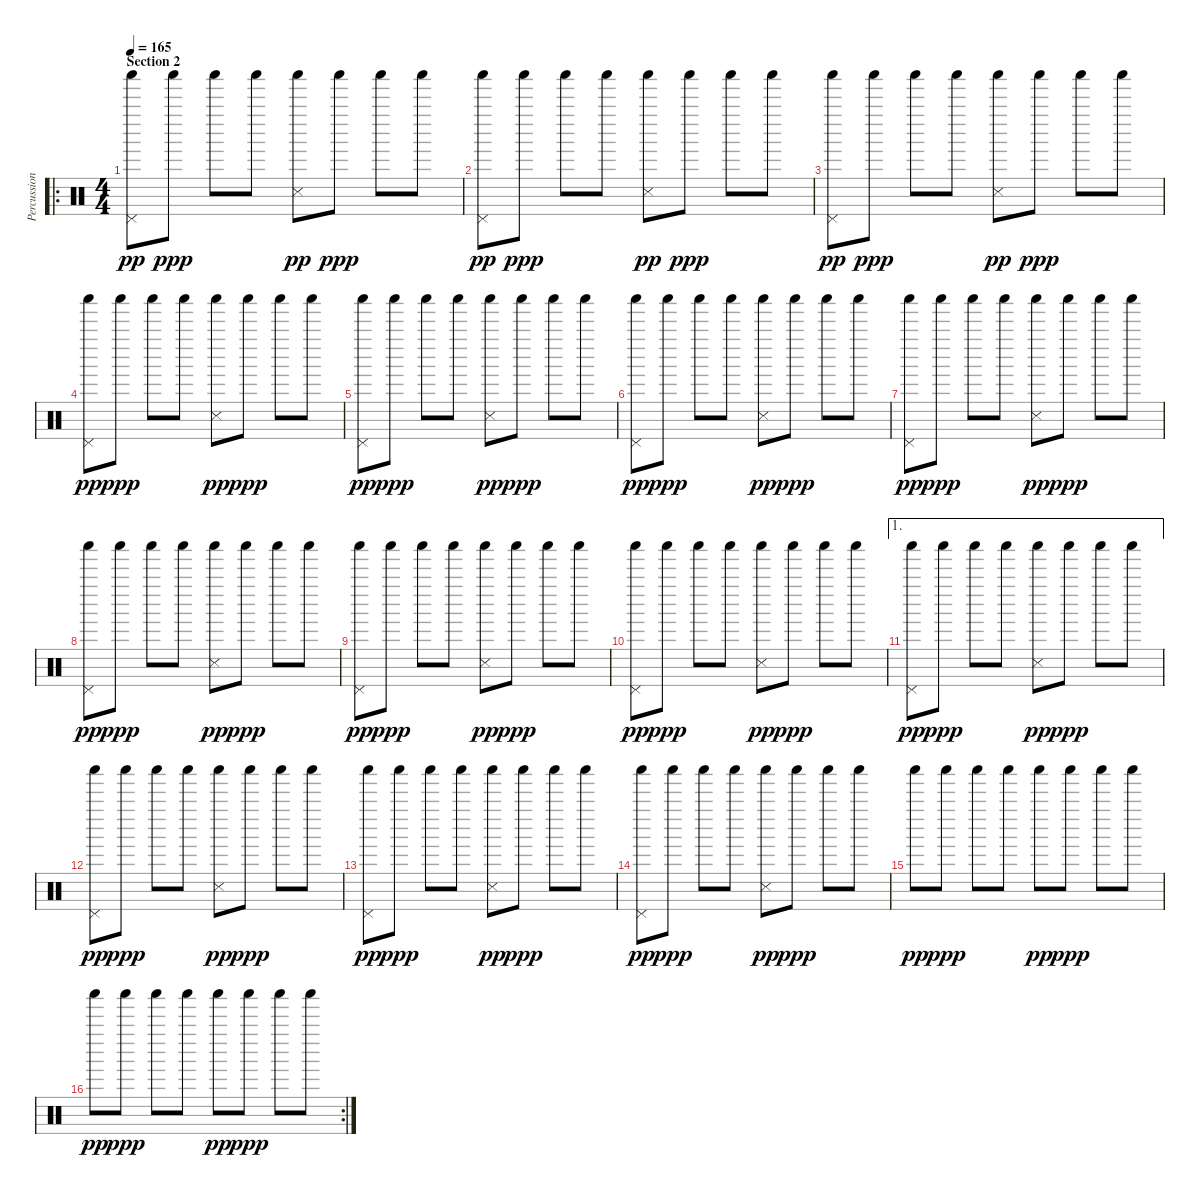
\track ("Percussion" "Percussion") {instrument percussion}
\staff {score}
\articulation defaults
\ro
\ts (4 4)
\section ("" "Section 2")
\tempo 165
\clef neutral
\ks c
("Pedal Hi-Hat (hit)" "Shaker (hit)").8{dy pp} "Shaker (hit)".8{dy ppp} "Shaker (hit)".8 "Shaker (hit)".8 ("Snare (side stick) 3" "Shaker (hit)").8{dy pp} "Shaker (hit)".8{dy ppp} "Shaker (hit)".8 "Shaker (hit)".8 |
("Pedal Hi-Hat (hit)" "Shaker (hit)").8{dy pp} "Shaker (hit)".8{dy ppp} "Shaker (hit)".8 "Shaker (hit)".8 ("Snare (side stick) 3" "Shaker (hit)").8{dy pp} "Shaker (hit)".8{dy ppp} "Shaker (hit)".8 "Shaker (hit)".8 |
("Pedal Hi-Hat (hit)" "Shaker (hit)").8{dy pp} "Shaker (hit)".8{dy ppp} "Shaker (hit)".8 "Shaker (hit)".8 ("Snare (side stick) 3" "Shaker (hit)").8{dy pp} "Shaker (hit)".8{dy ppp} "Shaker (hit)".8 "Shaker (hit)".8 |
("Pedal Hi-Hat (hit)" "Shaker (hit)").8{dy pp} "Shaker (hit)".8{dy ppp} "Shaker (hit)".8 "Shaker (hit)".8 ("Snare (side stick) 3" "Shaker (hit)").8{dy pp} "Shaker (hit)".8{dy ppp} "Shaker (hit)".8 "Shaker (hit)".8 |
("Pedal Hi-Hat (hit)" "Shaker (hit)").8{dy pp} "Shaker (hit)".8{dy ppp} "Shaker (hit)".8 "Shaker (hit)".8 ("Snare (side stick) 3" "Shaker (hit)").8{dy pp} "Shaker (hit)".8{dy ppp} "Shaker (hit)".8 "Shaker (hit)".8 |
("Pedal Hi-Hat (hit)" "Shaker (hit)").8{dy pp} "Shaker (hit)".8{dy ppp} "Shaker (hit)".8 "Shaker (hit)".8 ("Snare (side stick) 3" "Shaker (hit)").8{dy pp} "Shaker (hit)".8{dy ppp} "Shaker (hit)".8 "Shaker (hit)".8 |
("Pedal Hi-Hat (hit)" "Shaker (hit)").8{dy pp} "Shaker (hit)".8{dy ppp} "Shaker (hit)".8 "Shaker (hit)".8 ("Snare (side stick) 3" "Shaker (hit)").8{dy pp} "Shaker (hit)".8{dy ppp} "Shaker (hit)".8 "Shaker (hit)".8 |
("Pedal Hi-Hat (hit)" "Shaker (hit)").8{dy pp} "Shaker (hit)".8{dy ppp} "Shaker (hit)".8 "Shaker (hit)".8 ("Snare (side stick) 3" "Shaker (hit)").8{dy pp} "Shaker (hit)".8{dy ppp} "Shaker (hit)".8 "Shaker (hit)".8 |
("Pedal Hi-Hat (hit)" "Shaker (hit)").8{dy pp} "Shaker (hit)".8{dy ppp} "Shaker (hit)".8 "Shaker (hit)".8 ("Snare (side stick) 3" "Shaker (hit)").8{dy pp} "Shaker (hit)".8{dy ppp} "Shaker (hit)".8 "Shaker (hit)".8 |
("Pedal Hi-Hat (hit)" "Shaker (hit)").8{dy pp} "Shaker (hit)".8{dy ppp} "Shaker (hit)".8 "Shaker (hit)".8 ("Snare (side stick) 3" "Shaker (hit)").8{dy pp} "Shaker (hit)".8{dy ppp} "Shaker (hit)".8 "Shaker (hit)".8 |
\ae 1
("Pedal Hi-Hat (hit)" "Shaker (hit)").8{dy pp} "Shaker (hit)".8{dy ppp} "Shaker (hit)".8 "Shaker (hit)".8 ("Snare (side stick) 3" "Shaker (hit)").8{dy pp} "Shaker (hit)".8{dy ppp} "Shaker (hit)".8 "Shaker (hit)".8 |
("Pedal Hi-Hat (hit)" "Shaker (hit)").8{dy pp} "Shaker (hit)".8{dy ppp} "Shaker (hit)".8 "Shaker (hit)".8 ("Snare (side stick) 3" "Shaker (hit)").8{dy pp} "Shaker (hit)".8{dy ppp} "Shaker (hit)".8 "Shaker (hit)".8 |
("Pedal Hi-Hat (hit)" "Shaker (hit)").8{dy pp} "Shaker (hit)".8{dy ppp} "Shaker (hit)".8 "Shaker (hit)".8 ("Snare (side stick) 3" "Shaker (hit)").8{dy pp} "Shaker (hit)".8{dy ppp} "Shaker (hit)".8 "Shaker (hit)".8 |
("Pedal Hi-Hat (hit)" "Shaker (hit)").8{dy pp} "Shaker (hit)".8{dy ppp} "Shaker (hit)".8 "Shaker (hit)".8 ("Snare (side stick) 3" "Shaker (hit)").8{dy pp} "Shaker (hit)".8{dy ppp} "Shaker (hit)".8 "Shaker (hit)".8 |
"Shaker (hit)".8{dy pp} "Shaker (hit)".8{dy ppp} "Shaker (hit)".8 "Shaker (hit)".8 "Shaker (hit)".8{dy pp} "Shaker (hit)".8{dy ppp} "Shaker (hit)".8 "Shaker (hit)".8 |
\rc 2 "Shaker (hit)".8{dy pp} "Shaker (hit)".8{dy ppp} "Shaker (hit)".8 "Shaker (hit)".8 "Shaker (hit)".8{dy pp} "Shaker (hit)".8{dy ppp} "Shaker (hit)".8 "Shaker (hit)".8
